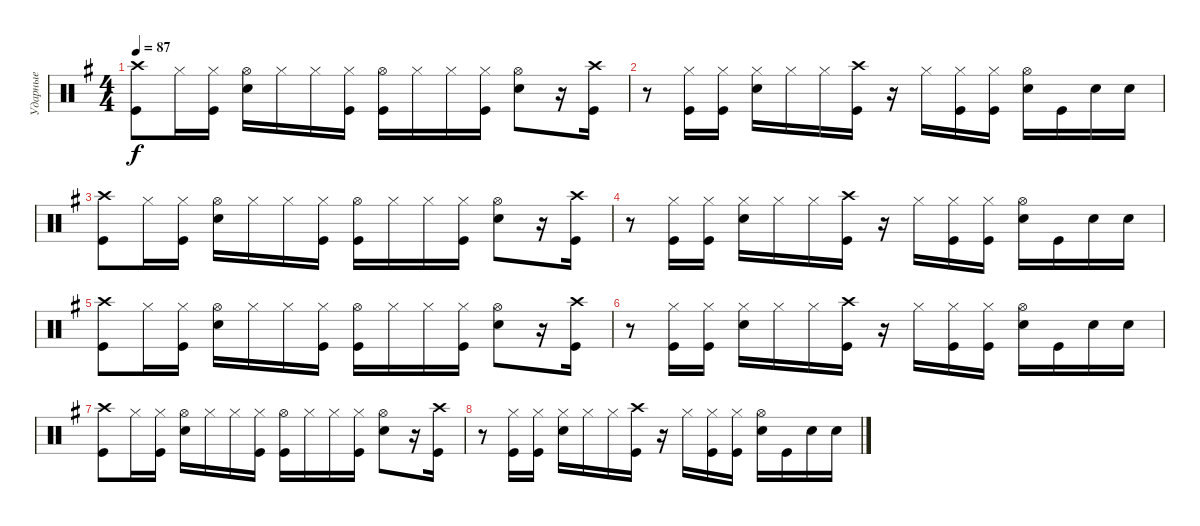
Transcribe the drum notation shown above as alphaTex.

\track ("Ударные" "Ударные") {instrument percussion}
\staff {score}
\articulation defaults
\ts (4 4)
\tempo 87
\clef neutral
\ks eminor
("Kick (hit)" "Crash high (hit)").8{dy f} "Hi-Hat (closed)".16 ("Hi-Hat (closed)" "Kick (hit)").16 ("Snare (hit) 2" "Hi-Hat (open)").16 "Hi-Hat (closed)".16 "Hi-Hat (closed)".16 ("Hi-Hat (closed)" "Kick (hit)").16 ("Hi-Hat (open)" "Kick (hit)").16 "Hi-Hat (closed)".16 "Hi-Hat (closed)".16 ("Hi-Hat (closed)" "Kick (hit)").16 ("Hi-Hat (open)" "Snare (hit) 2").8 r.16 ("Kick (hit)" "Crash high (hit)").16 |
r.8 ("Kick (hit)" "Hi-Hat (closed)").16 ("Kick (hit)" "Hi-Hat (closed)").16 ("Snare (hit) 2" "Hi-Hat (closed)").16 "Hi-Hat (closed)".16 "Hi-Hat (closed)".16 ("Crash high (hit)" "Kick (hit)").16 r.16 "Hi-Hat (closed)".16 ("Hi-Hat (closed)" "Kick (hit)").16 ("Hi-Hat (closed)" "Kick (hit)").16 ("Hi-Hat (open)" "Snare (hit) 2").16 "Kick (hit)".16 "Snare (hit) 2".16 "Snare (hit) 2".16 |
("Kick (hit)" "Crash high (hit)").8 "Hi-Hat (closed)".16 ("Hi-Hat (closed)" "Kick (hit)").16 ("Snare (hit) 2" "Hi-Hat (open)").16 "Hi-Hat (closed)".16 "Hi-Hat (closed)".16 ("Hi-Hat (closed)" "Kick (hit)").16 ("Hi-Hat (open)" "Kick (hit)").16 "Hi-Hat (closed)".16 "Hi-Hat (closed)".16 ("Hi-Hat (closed)" "Kick (hit)").16 ("Hi-Hat (open)" "Snare (hit) 2").8 r.16 ("Kick (hit)" "Crash high (hit)").16 |
r.8 ("Kick (hit)" "Hi-Hat (closed)").16 ("Kick (hit)" "Hi-Hat (closed)").16 ("Snare (hit) 2" "Hi-Hat (closed)").16 "Hi-Hat (closed)".16 "Hi-Hat (closed)".16 ("Crash high (hit)" "Kick (hit)").16 r.16 "Hi-Hat (closed)".16 ("Hi-Hat (closed)" "Kick (hit)").16 ("Hi-Hat (closed)" "Kick (hit)").16 ("Hi-Hat (open)" "Snare (hit) 2").16 "Kick (hit)".16 "Snare (hit) 2".16 "Snare (hit) 2".16 |
("Kick (hit)" "Crash high (hit)").8{volume 0} "Hi-Hat (closed)".16 ("Hi-Hat (closed)" "Kick (hit)").16 ("Snare (hit) 2" "Hi-Hat (open)").16 "Hi-Hat (closed)".16 "Hi-Hat (closed)".16 ("Hi-Hat (closed)" "Kick (hit)").16 ("Hi-Hat (open)" "Kick (hit)").16 "Hi-Hat (closed)".16 "Hi-Hat (closed)".16 ("Hi-Hat (closed)" "Kick (hit)").16 ("Hi-Hat (open)" "Snare (hit) 2").8 r.16 ("Kick (hit)" "Crash high (hit)").16 |
r.8 ("Kick (hit)" "Hi-Hat (closed)").16 ("Kick (hit)" "Hi-Hat (closed)").16 ("Snare (hit) 2" "Hi-Hat (closed)").16 "Hi-Hat (closed)".16 "Hi-Hat (closed)".16 ("Crash high (hit)" "Kick (hit)").16 r.16 "Hi-Hat (closed)".16 ("Hi-Hat (closed)" "Kick (hit)").16 ("Hi-Hat (closed)" "Kick (hit)").16 ("Hi-Hat (open)" "Snare (hit) 2").16 "Kick (hit)".16 "Snare (hit) 2".16 "Snare (hit) 2".16 |
("Kick (hit)" "Crash high (hit)").8 "Hi-Hat (closed)".16 ("Hi-Hat (closed)" "Kick (hit)").16 ("Snare (hit) 2" "Hi-Hat (open)").16 "Hi-Hat (closed)".16 "Hi-Hat (closed)".16 ("Hi-Hat (closed)" "Kick (hit)").16 ("Hi-Hat (open)" "Kick (hit)").16 "Hi-Hat (closed)".16 "Hi-Hat (closed)".16 ("Hi-Hat (closed)" "Kick (hit)").16 ("Hi-Hat (open)" "Snare (hit) 2").8 r.16 ("Kick (hit)" "Crash high (hit)").16 |
r.8 ("Kick (hit)" "Hi-Hat (closed)").16 ("Kick (hit)" "Hi-Hat (closed)").16 ("Snare (hit) 2" "Hi-Hat (closed)").16 "Hi-Hat (closed)".16 "Hi-Hat (closed)".16 ("Crash high (hit)" "Kick (hit)").16 r.16 "Hi-Hat (closed)".16 ("Hi-Hat (closed)" "Kick (hit)").16 ("Hi-Hat (closed)" "Kick (hit)").16 ("Hi-Hat (open)" "Snare (hit) 2").16 "Kick (hit)".16 "Snare (hit) 2".16 "Snare (hit) 2".16
